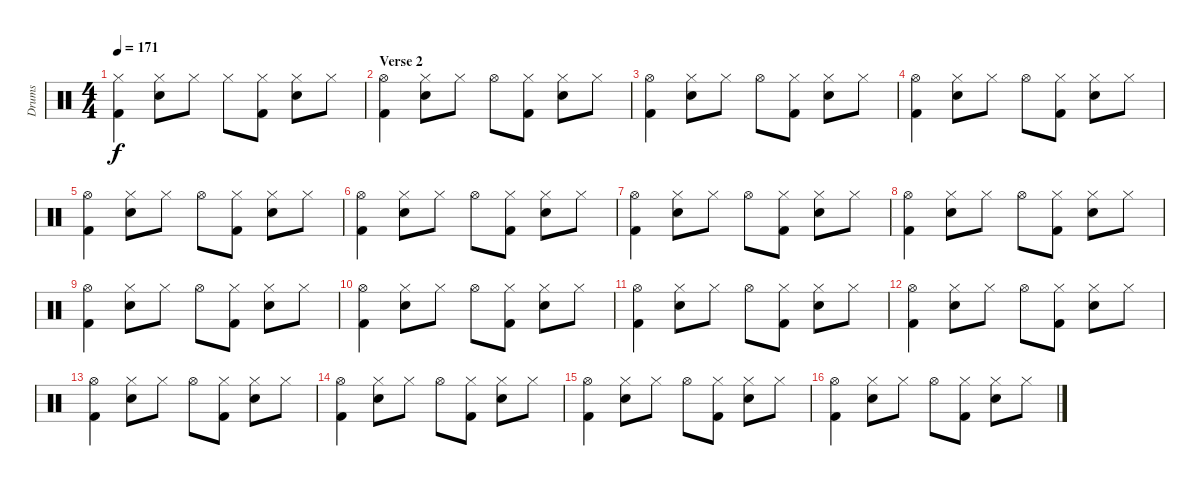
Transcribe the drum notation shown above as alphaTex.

\track ("Drums" "Drums") {instrument percussion}
\staff {score}
\articulation defaults
\ts (4 4)
\tempo 171
\clef neutral
\ks c
("Hi-Hat (closed)" "Kick (hit) 2").4{dy f} ("Hi-Hat (closed)" "Electric Snare (hit)").8 "Hi-Hat (closed)".8 "Hi-Hat (closed)".8 ("Hi-Hat (closed)" "Kick (hit) 2").8 ("Hi-Hat (closed)" "Electric Snare (hit)").8 "Hi-Hat (closed)".8 |
\section ("" "Verse 2")
("Hi-Hat (open)" "Kick (hit) 2").4 ("Hi-Hat (closed)" "Electric Snare (hit)").8 "Hi-Hat (closed)".8 "Hi-Hat (open)".8 ("Hi-Hat (closed)" "Kick (hit) 2").8 ("Hi-Hat (closed)" "Electric Snare (hit)").8 "Hi-Hat (closed)".8 |
("Hi-Hat (open)" "Kick (hit) 2").4 ("Hi-Hat (closed)" "Electric Snare (hit)").8 "Hi-Hat (closed)".8 "Hi-Hat (open)".8 ("Hi-Hat (closed)" "Kick (hit) 2").8 ("Hi-Hat (closed)" "Electric Snare (hit)").8 "Hi-Hat (closed)".8 |
("Hi-Hat (open)" "Kick (hit) 2").4 ("Hi-Hat (closed)" "Electric Snare (hit)").8 "Hi-Hat (closed)".8 "Hi-Hat (open)".8 ("Hi-Hat (closed)" "Kick (hit) 2").8 ("Hi-Hat (closed)" "Electric Snare (hit)").8 "Hi-Hat (closed)".8 |
("Hi-Hat (open)" "Kick (hit) 2").4 ("Hi-Hat (closed)" "Electric Snare (hit)").8 "Hi-Hat (closed)".8 "Hi-Hat (open)".8 ("Hi-Hat (closed)" "Kick (hit) 2").8 ("Hi-Hat (closed)" "Electric Snare (hit)").8 "Hi-Hat (closed)".8 |
("Hi-Hat (open)" "Kick (hit) 2").4 ("Hi-Hat (closed)" "Electric Snare (hit)").8 "Hi-Hat (closed)".8 "Hi-Hat (open)".8 ("Hi-Hat (closed)" "Kick (hit) 2").8 ("Hi-Hat (closed)" "Electric Snare (hit)").8 "Hi-Hat (closed)".8 |
("Hi-Hat (open)" "Kick (hit) 2").4 ("Hi-Hat (closed)" "Electric Snare (hit)").8 "Hi-Hat (closed)".8 "Hi-Hat (open)".8 ("Hi-Hat (closed)" "Kick (hit) 2").8 ("Hi-Hat (closed)" "Electric Snare (hit)").8 "Hi-Hat (closed)".8 |
("Hi-Hat (open)" "Kick (hit) 2").4 ("Hi-Hat (closed)" "Electric Snare (hit)").8 "Hi-Hat (closed)".8 "Hi-Hat (open)".8 ("Hi-Hat (closed)" "Kick (hit) 2").8 ("Hi-Hat (closed)" "Electric Snare (hit)").8 "Hi-Hat (closed)".8 |
("Hi-Hat (open)" "Kick (hit) 2").4 ("Hi-Hat (closed)" "Electric Snare (hit)").8 "Hi-Hat (closed)".8 "Hi-Hat (open)".8 ("Hi-Hat (closed)" "Kick (hit) 2").8 ("Hi-Hat (closed)" "Electric Snare (hit)").8 "Hi-Hat (closed)".8 |
("Hi-Hat (open)" "Kick (hit) 2").4 ("Hi-Hat (closed)" "Electric Snare (hit)").8 "Hi-Hat (closed)".8 "Hi-Hat (open)".8 ("Hi-Hat (closed)" "Kick (hit) 2").8 ("Hi-Hat (closed)" "Electric Snare (hit)").8 "Hi-Hat (closed)".8 |
("Hi-Hat (open)" "Kick (hit) 2").4 ("Hi-Hat (closed)" "Electric Snare (hit)").8 "Hi-Hat (closed)".8 "Hi-Hat (open)".8 ("Hi-Hat (closed)" "Kick (hit) 2").8 ("Hi-Hat (closed)" "Electric Snare (hit)").8 "Hi-Hat (closed)".8 |
("Hi-Hat (open)" "Kick (hit) 2").4 ("Hi-Hat (closed)" "Electric Snare (hit)").8 "Hi-Hat (closed)".8 "Hi-Hat (open)".8 ("Hi-Hat (closed)" "Kick (hit) 2").8 ("Hi-Hat (closed)" "Electric Snare (hit)").8 "Hi-Hat (closed)".8 |
("Hi-Hat (open)" "Kick (hit) 2").4 ("Hi-Hat (closed)" "Electric Snare (hit)").8 "Hi-Hat (closed)".8 "Hi-Hat (open)".8 ("Hi-Hat (closed)" "Kick (hit) 2").8 ("Hi-Hat (closed)" "Electric Snare (hit)").8 "Hi-Hat (closed)".8 |
("Hi-Hat (open)" "Kick (hit) 2").4 ("Hi-Hat (closed)" "Electric Snare (hit)").8 "Hi-Hat (closed)".8 "Hi-Hat (open)".8 ("Hi-Hat (closed)" "Kick (hit) 2").8 ("Hi-Hat (closed)" "Electric Snare (hit)").8 "Hi-Hat (closed)".8 |
("Hi-Hat (open)" "Kick (hit) 2").4 ("Hi-Hat (closed)" "Electric Snare (hit)").8 "Hi-Hat (closed)".8 "Hi-Hat (open)".8 ("Hi-Hat (closed)" "Kick (hit) 2").8 ("Hi-Hat (closed)" "Electric Snare (hit)").8 "Hi-Hat (closed)".8 |
("Hi-Hat (open)" "Kick (hit) 2").4 ("Hi-Hat (closed)" "Electric Snare (hit)").8 "Hi-Hat (closed)".8 "Hi-Hat (open)".8 ("Hi-Hat (closed)" "Kick (hit) 2").8 ("Hi-Hat (closed)" "Electric Snare (hit)").8 "Hi-Hat (closed)".8
